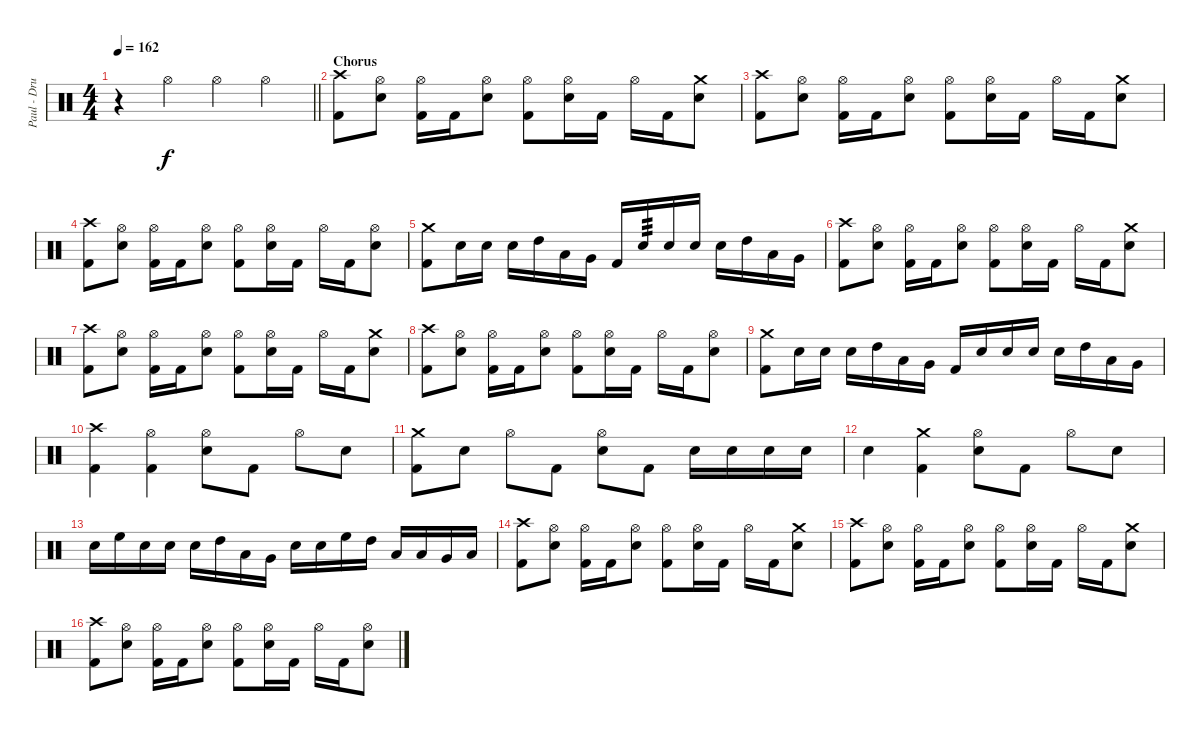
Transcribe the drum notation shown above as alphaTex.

\track ("Paul - Drums" "Paul - Dru") {instrument percussion}
\staff {score}
\articulation defaults
\ts (4 4)
\tempo 162
\clef neutral
\barLineRight lightlight
\ks c
r.4{dy f} "Hi-Hat (open)".4 "Hi-Hat (open)".4 "Hi-Hat (open)".4 |
\section ("" "Chorus")
("Crash high (hit)" "Kick (hit) 2").8 ("Hi-Hat (open)" "Electric Snare (hit)").8 ("Hi-Hat (open)" "Kick (hit) 2").16 "Kick (hit) 2".16 ("Hi-Hat (open)" "Electric Snare (hit)").8 ("Hi-Hat (open)" "Kick (hit) 2").8 ("Hi-Hat (open)" "Electric Snare (hit)").16 "Kick (hit) 2".16 "Hi-Hat (open)".16 "Kick (hit) 2".16 ("Crash medium (hit)" "Electric Snare (hit)").8 |
("Crash high (hit)" "Kick (hit) 2").8 ("Hi-Hat (open)" "Electric Snare (hit)").8 ("Hi-Hat (open)" "Kick (hit) 2").16 "Kick (hit) 2".16 ("Hi-Hat (open)" "Electric Snare (hit)").8 ("Hi-Hat (open)" "Kick (hit) 2").8 ("Hi-Hat (open)" "Electric Snare (hit)").16 "Kick (hit) 2".16 "Hi-Hat (open)".16 "Kick (hit) 2".16 ("Crash medium (hit)" "Electric Snare (hit)").8 |
("Crash high (hit)" "Kick (hit) 2").8 ("Hi-Hat (open)" "Electric Snare (hit)").8 ("Hi-Hat (open)" "Kick (hit) 2").16 "Kick (hit) 2".16 ("Hi-Hat (open)" "Electric Snare (hit)").8 ("Hi-Hat (open)" "Kick (hit) 2").8 ("Hi-Hat (open)" "Electric Snare (hit)").16 "Kick (hit) 2".16 "Hi-Hat (open)".16 "Kick (hit) 2".16 ("Hi-Hat (open)" "Electric Snare (hit)").8 |
("Crash medium (hit)" "Kick (hit) 2").8 "Electric Snare (hit)".16 "Electric Snare (hit)".16 "Electric Snare (hit)".16 "High Tom (hit)".16 "Low Tom (hit)".16 "Very Low Tom (hit)".16 "Kick (hit) 2".16 "Electric Snare (hit)".16{tp 3} "Electric Snare (hit)".16 "Electric Snare (hit)".16 "Electric Snare (hit)".16 "High Tom (hit)".16 "Low Tom (hit)".16 "Very Low Tom (hit)".16 |
("Crash high (hit)" "Kick (hit) 2").8 ("Hi-Hat (open)" "Electric Snare (hit)").8 ("Hi-Hat (open)" "Kick (hit) 2").16 "Kick (hit) 2".16 ("Hi-Hat (open)" "Electric Snare (hit)").8 ("Hi-Hat (open)" "Kick (hit) 2").8 ("Hi-Hat (open)" "Electric Snare (hit)").16 "Kick (hit) 2".16 "Hi-Hat (open)".16 "Kick (hit) 2".16 ("Crash medium (hit)" "Electric Snare (hit)").8 |
("Crash high (hit)" "Kick (hit) 2").8 ("Hi-Hat (open)" "Electric Snare (hit)").8 ("Hi-Hat (open)" "Kick (hit) 2").16 "Kick (hit) 2".16 ("Hi-Hat (open)" "Electric Snare (hit)").8 ("Hi-Hat (open)" "Kick (hit) 2").8 ("Hi-Hat (open)" "Electric Snare (hit)").16 "Kick (hit) 2".16 "Hi-Hat (open)".16 "Kick (hit) 2".16 ("Crash medium (hit)" "Electric Snare (hit)").8 |
("Crash high (hit)" "Kick (hit) 2").8 ("Hi-Hat (open)" "Electric Snare (hit)").8 ("Hi-Hat (open)" "Kick (hit) 2").16 "Kick (hit) 2".16 ("Hi-Hat (open)" "Electric Snare (hit)").8 ("Hi-Hat (open)" "Kick (hit) 2").8 ("Hi-Hat (open)" "Electric Snare (hit)").16 "Kick (hit) 2".16 "Hi-Hat (open)".16 "Kick (hit) 2".16 ("Hi-Hat (open)" "Electric Snare (hit)").8 |
("Crash medium (hit)" "Kick (hit) 2").8 "Electric Snare (hit)".16 "Electric Snare (hit)".16 "Electric Snare (hit)".16 "High Tom (hit)".16 "Low Tom (hit)".16 "Very Low Tom (hit)".16 "Kick (hit) 2".16 "Electric Snare (hit)".16 "Electric Snare (hit)".16 "Electric Snare (hit)".16 "Electric Snare (hit)".16 "High Tom (hit)".16 "Low Tom (hit)".16 "Very Low Tom (hit)".16 |
("Crash high (hit)" "Kick (hit) 2").4 ("Hi-Hat (open)" "Kick (hit) 2").4 ("Hi-Hat (open)" "Electric Snare (hit)").8 "Kick (hit) 2".8 "Hi-Hat (open)".8 "Electric Snare (hit)".8 |
("Crash medium (hit)" "Kick (hit) 2").8 "Electric Snare (hit)".8 "Hi-Hat (open)".8 "Kick (hit) 2".8 ("Hi-Hat (open)" "Electric Snare (hit)").8 "Kick (hit) 2".8 "Electric Snare (hit)".16 "Electric Snare (hit)".16 "Electric Snare (hit)".16 "Electric Snare (hit)".16 |
"Electric Snare (hit)".4 ("Crash medium (hit)" "Kick (hit) 2").4 ("Hi-Hat (open)" "Electric Snare (hit)").8 "Kick (hit) 2".8 "Hi-Hat (open)".8 "Electric Snare (hit)".8 |
"Electric Snare (hit)".16 "High Floor Tom (hit)".16 "Electric Snare (hit)".16 "Electric Snare (hit)".16 "Electric Snare (hit)".16 "High Tom (hit)".16 "Low Tom (hit)".16 "Very Low Tom (hit)".16 "Electric Snare (hit)".16 "Electric Snare (hit)".16 "High Floor Tom (hit)".16 "High Tom (hit)".16 "Low Tom (hit)".16 "Low Tom (hit)".16 "Very Low Tom (hit)".16 "Low Floor Tom (hit)".16 |
("Crash high (hit)" "Kick (hit) 2").8 ("Hi-Hat (open)" "Electric Snare (hit)").8 ("Hi-Hat (open)" "Kick (hit) 2").16 "Kick (hit) 2".16 ("Hi-Hat (open)" "Electric Snare (hit)").8 ("Hi-Hat (open)" "Kick (hit) 2").8 ("Hi-Hat (open)" "Electric Snare (hit)").16 "Kick (hit) 2".16 "Hi-Hat (open)".16 "Kick (hit) 2".16 ("Crash medium (hit)" "Electric Snare (hit)").8 |
("Crash high (hit)" "Kick (hit) 2").8 ("Hi-Hat (open)" "Electric Snare (hit)").8 ("Hi-Hat (open)" "Kick (hit) 2").16 "Kick (hit) 2".16 ("Hi-Hat (open)" "Electric Snare (hit)").8 ("Hi-Hat (open)" "Kick (hit) 2").8 ("Hi-Hat (open)" "Electric Snare (hit)").16 "Kick (hit) 2".16 "Hi-Hat (open)".16 "Kick (hit) 2".16 ("Crash medium (hit)" "Electric Snare (hit)").8 |
("Crash high (hit)" "Kick (hit) 2").8 ("Hi-Hat (open)" "Electric Snare (hit)").8 ("Hi-Hat (open)" "Kick (hit) 2").16 "Kick (hit) 2".16 ("Hi-Hat (open)" "Electric Snare (hit)").8 ("Hi-Hat (open)" "Kick (hit) 2").8 ("Hi-Hat (open)" "Electric Snare (hit)").16 "Kick (hit) 2".16 "Hi-Hat (open)".16 "Kick (hit) 2".16 ("Hi-Hat (open)" "Electric Snare (hit)").8
